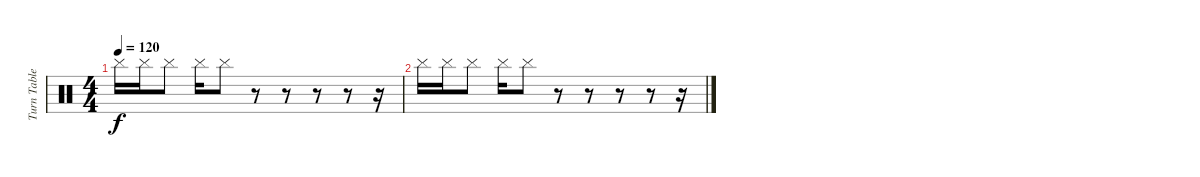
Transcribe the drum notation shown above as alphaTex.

\track ("Turn Tables" "Turn Table") {instrument percussion}
\staff {score}
\articulation defaults
\ts (4 4)
\tempo 120
\clef neutral
\ks c "Cymbal (hit)".16{dy f} "Cymbal (hit)".16 "Cymbal (hit)".8 "Cymbal (hit)".16 "Cymbal (hit)".8
r.8 r.8 r.8 r.8 r.16 |
"Cymbal (hit)".16 "Cymbal (hit)".16 "Cymbal (hit)".8 "Cymbal (hit)".16 "Cymbal (hit)".8 r.8 r.8 r.8 r.8 r.16
